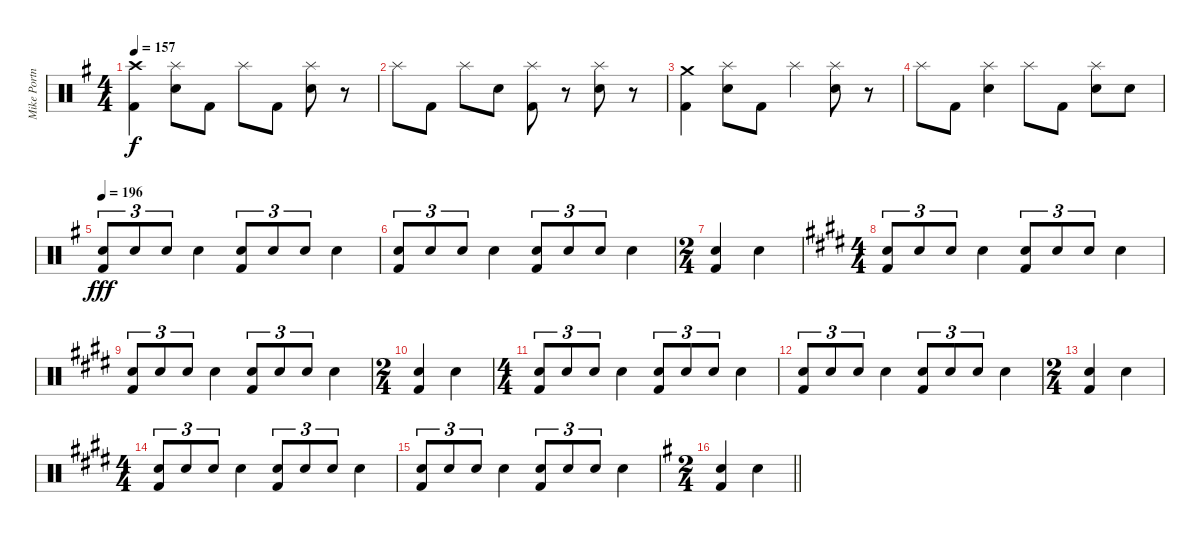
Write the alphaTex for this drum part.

\track ("Mike Portnoy" "Mike Portn") {instrument percussion}
\staff {score}
\articulation defaults
\ts (4 4)
\tempo 157
\clef neutral
\ks g
("Kick (hit) 2" "Crash high (hit)").4{dy f} ("Snare (hit) 2" "Splash (hit)").8 "Kick (hit) 2".8 "Splash (hit)".8 "Kick (hit) 2".8 ("Snare (hit) 2" "Splash (hit)").8 r.8 |
"Splash (hit)".8 "Kick (hit) 2".8 "Splash (hit)".8 "Snare (hit) 2".8 ("Kick (hit) 2" "Splash (hit)").8 r.8 ("Snare (hit) 2" "Splash (hit)").8 r.8 |
("Kick (hit) 2" "Crash medium (hit)").4 ("Snare (hit) 2" "Splash (hit)").8 "Kick (hit) 2".8 "Splash (hit)".4 ("Snare (hit) 2" "Splash (hit)").8 r.8 |
"Splash (hit)".8 "Kick (hit) 2".8 ("Snare (hit) 2" "Splash (hit)").4 "Splash (hit)".8 "Kick (hit) 2".8 ("Snare (hit) 2" "Splash (hit)").8 "Snare (hit) 2".8 |
\tempo 196
("Kick (hit) 2" "Snare (hit) 2").8{tu (3 2) dy fff} "Snare (hit) 2".8{tu (3 2)} "Snare (hit) 2".8{tu (3 2)} "Snare (hit) 2".4 ("Kick (hit) 2" "Snare (hit) 2").8{tu (3 2)} "Snare (hit) 2".8{tu (3 2)} "Snare (hit) 2".8{tu (3 2)} "Snare (hit) 2".4 |
("Kick (hit) 2" "Snare (hit) 2").8{tu (3 2)} "Snare (hit) 2".8{tu (3 2)} "Snare (hit) 2".8{tu (3 2)} "Snare (hit) 2".4 ("Kick (hit) 2" "Snare (hit) 2").8{tu (3 2)} "Snare (hit) 2".8{tu (3 2)} "Snare (hit) 2".8{tu (3 2)} "Snare (hit) 2".4 |
\ts (2 4)
("Kick (hit) 2" "Snare (hit) 2").4 "Snare (hit) 2".4 |
\ts (4 4)
\ks e
("Kick (hit) 2" "Snare (hit) 2").8{tu (3 2)} "Snare (hit) 2".8{tu (3 2)} "Snare (hit) 2".8{tu (3 2)} "Snare (hit) 2".4 ("Kick (hit) 2" "Snare (hit) 2").8{tu (3 2)} "Snare (hit) 2".8{tu (3 2)} "Snare (hit) 2".8{tu (3 2)} "Snare (hit) 2".4 |
\ks c#minor
("Kick (hit) 2" "Snare (hit) 2").8{tu (3 2)} "Snare (hit) 2".8{tu (3 2)} "Snare (hit) 2".8{tu (3 2)} "Snare (hit) 2".4 ("Kick (hit) 2" "Snare (hit) 2").8{tu (3 2)} "Snare (hit) 2".8{tu (3 2)} "Snare (hit) 2".8{tu (3 2)} "Snare (hit) 2".4 |
\ts (2 4)
("Kick (hit) 2" "Snare (hit) 2").4 "Snare (hit) 2".4 |
\ts (4 4)
\ks e
("Kick (hit) 2" "Snare (hit) 2").8{tu (3 2)} "Snare (hit) 2".8{tu (3 2)} "Snare (hit) 2".8{tu (3 2)} "Snare (hit) 2".4 ("Kick (hit) 2" "Snare (hit) 2").8{tu (3 2)} "Snare (hit) 2".8{tu (3 2)} "Snare (hit) 2".8{tu (3 2)} "Snare (hit) 2".4 |
\ks c#minor
("Kick (hit) 2" "Snare (hit) 2").8{tu (3 2)} "Snare (hit) 2".8{tu (3 2)} "Snare (hit) 2".8{tu (3 2)} "Snare (hit) 2".4 ("Kick (hit) 2" "Snare (hit) 2").8{tu (3 2)} "Snare (hit) 2".8{tu (3 2)} "Snare (hit) 2".8{tu (3 2)} "Snare (hit) 2".4 |
\ts (2 4)
("Kick (hit) 2" "Snare (hit) 2").4 "Snare (hit) 2".4 |
\ts (4 4)
("Kick (hit) 2" "Snare (hit) 2").8{tu (3 2)} "Snare (hit) 2".8{tu (3 2)} "Snare (hit) 2".8{tu (3 2)} "Snare (hit) 2".4 ("Kick (hit) 2" "Snare (hit) 2").8{tu (3 2)} "Snare (hit) 2".8{tu (3 2)} "Snare (hit) 2".8{tu (3 2)} "Snare (hit) 2".4 |
("Kick (hit) 2" "Snare (hit) 2").8{tu (3 2)} "Snare (hit) 2".8{tu (3 2)} "Snare (hit) 2".8{tu (3 2)} "Snare (hit) 2".4 ("Kick (hit) 2" "Snare (hit) 2").8{tu (3 2)} "Snare (hit) 2".8{tu (3 2)} "Snare (hit) 2".8{tu (3 2)} "Snare (hit) 2".4 |
\ts (2 4)
\barLineRight lightlight
\ks g
("Kick (hit) 2" "Snare (hit) 2").4 "Snare (hit) 2".4
